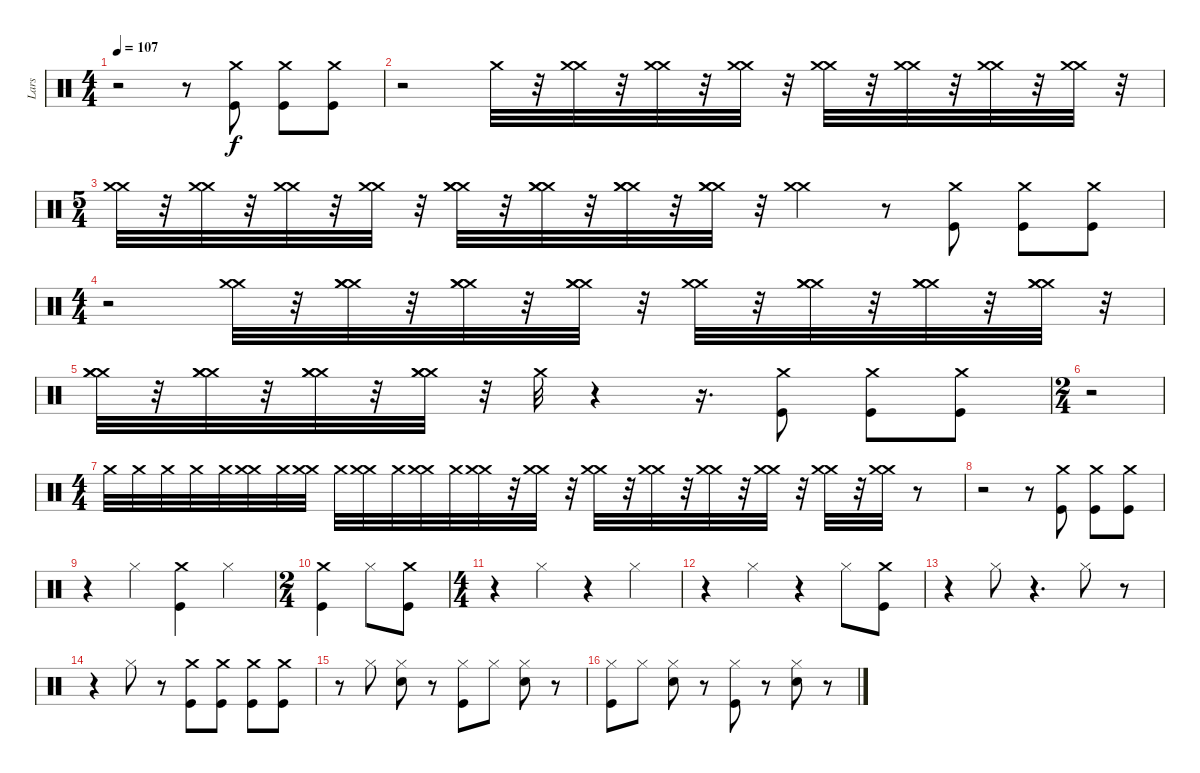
\track ("Lars" "Lars") {instrument percussion}
\staff {score}
\articulation defaults
\ts (4 4)
\tempo 107
\clef neutral
\ks c
r.2{dy f} r.8 ("Crash medium (hit)" "Kick (hit)").8 ("Crash medium (hit)" "Kick (hit)").8 ("Crash medium (hit)" "Kick (hit)").8 |
r.2 "Crash medium (hit)".32 r.32 ("Crash medium (hit)" "Crash medium (hit)").32 r.32 ("Crash medium (hit)" "Crash medium (hit)").32 r.32 ("Crash medium (hit)" "Crash medium (hit)").32 r.32 ("Crash medium (hit)" "Crash medium (hit)").32 r.32 ("Crash medium (hit)" "Crash medium (hit)").32 r.32 ("Crash medium (hit)" "Crash medium (hit)").32 r.32 ("Crash medium (hit)" "Crash medium (hit)").32 r.32 |
\ts (5 4)
("Crash medium (hit)" "Crash medium (hit)").32 r.32 ("Crash medium (hit)" "Crash medium (hit)").32 r.32 ("Crash medium (hit)" "Crash medium (hit)").32 r.32 ("Crash medium (hit)" "Crash medium (hit)").32 r.32 ("Crash medium (hit)" "Crash medium (hit)" "Crash medium (hit)").32 r.32 ("Crash medium (hit)" "Crash medium (hit)" "Crash medium (hit)").32 r.32 ("Crash medium (hit)" "Crash medium (hit)" "Crash medium (hit)").32 r.32 ("Crash medium (hit)" "Crash medium (hit)" "Crash medium (hit)").32 r.32 ("Crash medium (hit)" "Crash medium (hit)").4 r.8 ("Crash medium (hit)" "Kick (hit)").8 ("Crash medium (hit)" "Kick (hit)").8 ("Crash medium (hit)" "Kick (hit)").8 |
\ts (4 4)
r.2 ("Crash medium (hit)" "Crash medium (hit)").32 r.32 ("Crash medium (hit)" "Crash medium (hit)" "Crash medium (hit)").32 r.32 ("Crash medium (hit)" "Crash medium (hit)" "Crash medium (hit)").32 r.32 ("Crash medium (hit)" "Crash medium (hit)" "Crash medium (hit)").32 r.32 ("Crash medium (hit)" "Crash medium (hit)").32 r.32 ("Crash medium (hit)" "Crash medium (hit)" "Crash medium (hit)").32 r.32 ("Crash medium (hit)" "Crash medium (hit)" "Crash medium (hit)").32 r.32 ("Crash medium (hit)" "Crash medium (hit)" "Crash medium (hit)").32 r.32 |
("Crash medium (hit)" "Crash medium (hit)" "Crash medium (hit)").32 r.32 ("Crash medium (hit)" "Crash medium (hit)" "Crash medium (hit)").32 r.32 ("Crash medium (hit)" "Crash medium (hit)" "Crash medium (hit)").32 r.32 ("Crash medium (hit)" "Crash medium (hit)" "Crash medium (hit)").32 r.32 "Crash medium (hit)".32 r.4 r.16{d} ("Crash medium (hit)" "Kick (hit)").8 ("Crash medium (hit)" "Kick (hit)").8 ("Crash medium (hit)" "Kick (hit)").8 |
\ts (2 4)
r.2 |
\ts (4 4)
"Crash medium (hit)".32 "Crash medium (hit)".32 "Crash medium (hit)".32 "Crash medium (hit)".32 "Crash medium (hit)".32 ("Crash medium (hit)" "Crash medium (hit)").32 "Crash medium (hit)".32 ("Crash medium (hit)" "Crash medium (hit)").32 "Crash medium (hit)".32 ("Crash medium (hit)" "Crash medium (hit)").32 "Crash medium (hit)".32 ("Crash medium (hit)" "Crash medium (hit)").32 "Crash medium (hit)".32 ("Crash medium (hit)" "Crash medium (hit)").32 r.32 ("Crash medium (hit)" "Crash medium (hit)").32 r.32 ("Crash medium (hit)" "Crash medium (hit)").32 r.32 ("Crash medium (hit)" "Crash medium (hit)").32 r.32 ("Crash medium (hit)" "Crash medium (hit)").32 r.32 ("Crash medium (hit)" "Crash medium (hit)").32 r.32 ("Crash medium (hit)" "Crash medium (hit)").32 r.32 ("Crash medium (hit)" "Crash medium (hit)").32 r.8 |
r.2 r.8 ("Crash medium (hit)" "Kick (hit)").8 ("Crash medium (hit)" "Kick (hit)").8 ("Kick (hit)" "Crash medium (hit)").8 |
r.4 "Hi-Hat (closed)".4 ("Crash medium (hit)" "Kick (hit)").4 "Hi-Hat (closed)".4 |
\ts (2 4)
("Crash medium (hit)" "Kick (hit)").4 "Hi-Hat (closed)".8 ("Crash medium (hit)" "Kick (hit)").8 |
\ts (4 4)
r.4 "Hi-Hat (closed)".4 r.4 "Hi-Hat (closed)".4 |
r.4 "Hi-Hat (closed)".4 r.4 "Hi-Hat (closed)".8 ("Crash medium (hit)" "Kick (hit)").8 |
r.4 "Hi-Hat (closed)".8 r.4{d} "Hi-Hat (closed)".8 r.8 |
r.4 "Hi-Hat (closed)".8 r.8 ("Crash medium (hit)" "Kick (hit)").8 ("Crash medium (hit)" "Kick (hit)").8 ("Crash medium (hit)" "Kick (hit)").8 ("Crash medium (hit)" "Kick (hit)").8 |
r.8 "Hi-Hat (closed)".8 ("Hi-Hat (closed)" "Snare (hit) 2").8 r.8 ("Kick (hit)" "Hi-Hat (closed)").8 "Hi-Hat (closed)".8 ("Snare (hit) 2" "Hi-Hat (closed)").8 r.8 |
("Kick (hit)" "Hi-Hat (closed)").8 "Hi-Hat (closed)".8 ("Snare (hit) 2" "Hi-Hat (closed)").8 r.8 ("Kick (hit)" "Hi-Hat (closed)").8 r.8 ("Snare (hit) 2" "Hi-Hat (closed)").8 r.8
